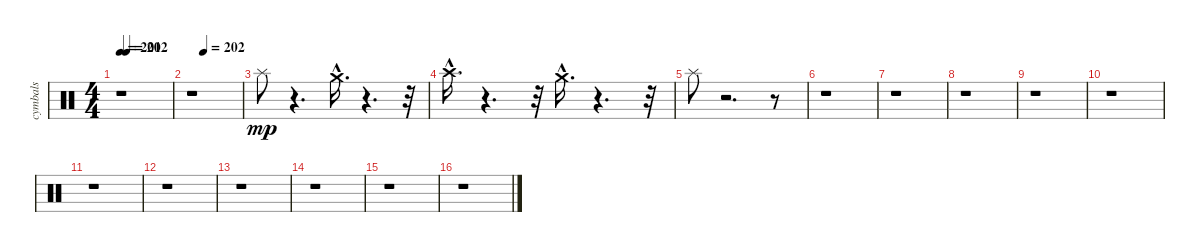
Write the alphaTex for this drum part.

\track ("cymbals" "cymbals") {instrument percussion}
\staff {score}
\articulation defaults
\ts (4 4)
\tempo 201
\tempo (202 0.125)
\clef neutral
\ks c
r.1{dy mp} |
\tempo (202 0.25)
r.1 |
"Splash (hit)".8 r.4{d} "Crash medium (hit)"{hac}.16{d} r.4{d} r.32 |
"Crash high (hit)"{hac}.16{d} r.4{d} r.32 "Crash medium (hit)"{hac}.16{d} r.4{d} r.32 |
"Splash (hit)".8 r.2{d} r.8 |
r.1 |
r.1 |
r.1 |
r.1 |
r.1 |
r.1 |
r.1 |
r.1 |
r.1 |
r.1 |
r.1
